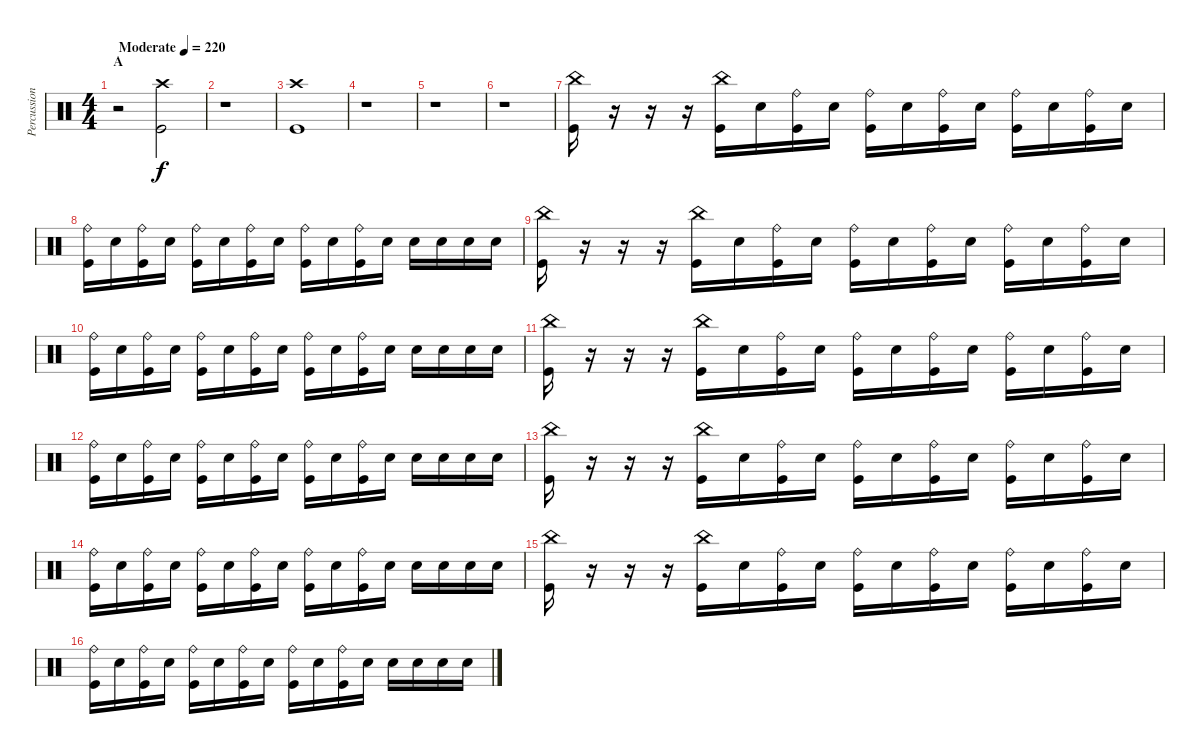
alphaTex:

\track ("Percussion" "Percussion") {instrument percussion}
\staff {score}
\articulation defaults
\ts (4 4)
\section ("" "A")
\tempo (220 "Moderate")
\clef neutral
\ks c
r.2{dy f} ("Crash high (hit)" "Kick (hit)").2 |
r.1 |
("Crash high (hit)" "Kick (hit)").1 |
r.1 |
r.1 |
r.1 |
("China (hit)" "Kick (hit)").16 r.16 r.16 r.16 ("China (hit)" "Kick (hit)").16 "Snare (hit) 2".16 ("Ride (bell)" "Kick (hit)").16 "Snare (hit) 2".16 ("Ride (bell)" "Kick (hit)").16 "Snare (hit) 2".16 ("Ride (bell)" "Kick (hit)").16 "Snare (hit) 2".16 ("Ride (bell)" "Kick (hit)").16 "Snare (hit) 2".16 ("Ride (bell)" "Kick (hit)").16 "Snare (hit) 2".16 |
("Ride (bell)" "Kick (hit)").16 "Snare (hit) 2".16 ("Ride (bell)" "Kick (hit)").16 "Snare (hit) 2".16 ("Ride (bell)" "Kick (hit)").16 "Snare (hit) 2".16 ("Ride (bell)" "Kick (hit)").16 "Snare (hit) 2".16 ("Ride (bell)" "Kick (hit)").16 "Snare (hit) 2".16 ("Ride (bell)" "Kick (hit)").16 "Snare (hit) 2".16 "Snare (hit) 2".16 "Snare (hit) 2".16 "Snare (hit) 2".16 "Snare (hit) 2".16 |
("China (hit)" "Kick (hit)").16 r.16 r.16 r.16 ("China (hit)" "Kick (hit)").16 "Snare (hit) 2".16 ("Ride (bell)" "Kick (hit)").16 "Snare (hit) 2".16 ("Ride (bell)" "Kick (hit)").16 "Snare (hit) 2".16 ("Ride (bell)" "Kick (hit)").16 "Snare (hit) 2".16 ("Ride (bell)" "Kick (hit)").16 "Snare (hit) 2".16 ("Ride (bell)" "Kick (hit)").16 "Snare (hit) 2".16 |
("Ride (bell)" "Kick (hit)").16 "Snare (hit) 2".16 ("Ride (bell)" "Kick (hit)").16 "Snare (hit) 2".16 ("Ride (bell)" "Kick (hit)").16 "Snare (hit) 2".16 ("Ride (bell)" "Kick (hit)").16 "Snare (hit) 2".16 ("Ride (bell)" "Kick (hit)").16 "Snare (hit) 2".16 ("Ride (bell)" "Kick (hit)").16 "Snare (hit) 2".16 "Snare (hit) 2".16 "Snare (hit) 2".16 "Snare (hit) 2".16 "Snare (hit) 2".16 |
("China (hit)" "Kick (hit)").16 r.16 r.16 r.16 ("China (hit)" "Kick (hit)").16 "Snare (hit) 2".16 ("Ride (bell)" "Kick (hit)").16 "Snare (hit) 2".16 ("Ride (bell)" "Kick (hit)").16 "Snare (hit) 2".16 ("Ride (bell)" "Kick (hit)").16 "Snare (hit) 2".16 ("Ride (bell)" "Kick (hit)").16 "Snare (hit) 2".16 ("Ride (bell)" "Kick (hit)").16 "Snare (hit) 2".16 |
("Ride (bell)" "Kick (hit)").16 "Snare (hit) 2".16 ("Ride (bell)" "Kick (hit)").16 "Snare (hit) 2".16 ("Ride (bell)" "Kick (hit)").16 "Snare (hit) 2".16 ("Ride (bell)" "Kick (hit)").16 "Snare (hit) 2".16 ("Ride (bell)" "Kick (hit)").16 "Snare (hit) 2".16 ("Ride (bell)" "Kick (hit)").16 "Snare (hit) 2".16 "Snare (hit) 2".16 "Snare (hit) 2".16 "Snare (hit) 2".16 "Snare (hit) 2".16 |
("China (hit)" "Kick (hit)").16 r.16 r.16 r.16 ("China (hit)" "Kick (hit)").16 "Snare (hit) 2".16 ("Ride (bell)" "Kick (hit)").16 "Snare (hit) 2".16 ("Ride (bell)" "Kick (hit)").16 "Snare (hit) 2".16 ("Ride (bell)" "Kick (hit)").16 "Snare (hit) 2".16 ("Ride (bell)" "Kick (hit)").16 "Snare (hit) 2".16 ("Ride (bell)" "Kick (hit)").16 "Snare (hit) 2".16 |
("Ride (bell)" "Kick (hit)").16 "Snare (hit) 2".16 ("Ride (bell)" "Kick (hit)").16 "Snare (hit) 2".16 ("Ride (bell)" "Kick (hit)").16 "Snare (hit) 2".16 ("Ride (bell)" "Kick (hit)").16 "Snare (hit) 2".16 ("Ride (bell)" "Kick (hit)").16 "Snare (hit) 2".16 ("Ride (bell)" "Kick (hit)").16 "Snare (hit) 2".16 "Snare (hit) 2".16 "Snare (hit) 2".16 "Snare (hit) 2".16 "Snare (hit) 2".16 |
("China (hit)" "Kick (hit)").16 r.16 r.16 r.16 ("China (hit)" "Kick (hit)").16 "Snare (hit) 2".16 ("Ride (bell)" "Kick (hit)").16 "Snare (hit) 2".16 ("Ride (bell)" "Kick (hit)").16 "Snare (hit) 2".16 ("Ride (bell)" "Kick (hit)").16 "Snare (hit) 2".16 ("Ride (bell)" "Kick (hit)").16 "Snare (hit) 2".16 ("Ride (bell)" "Kick (hit)").16 "Snare (hit) 2".16 |
("Ride (bell)" "Kick (hit)").16 "Snare (hit) 2".16 ("Ride (bell)" "Kick (hit)").16 "Snare (hit) 2".16 ("Ride (bell)" "Kick (hit)").16 "Snare (hit) 2".16 ("Ride (bell)" "Kick (hit)").16 "Snare (hit) 2".16 ("Ride (bell)" "Kick (hit)").16 "Snare (hit) 2".16 ("Ride (bell)" "Kick (hit)").16 "Snare (hit) 2".16 "Snare (hit) 2".16 "Snare (hit) 2".16 "Snare (hit) 2".16 "Snare (hit) 2".16
